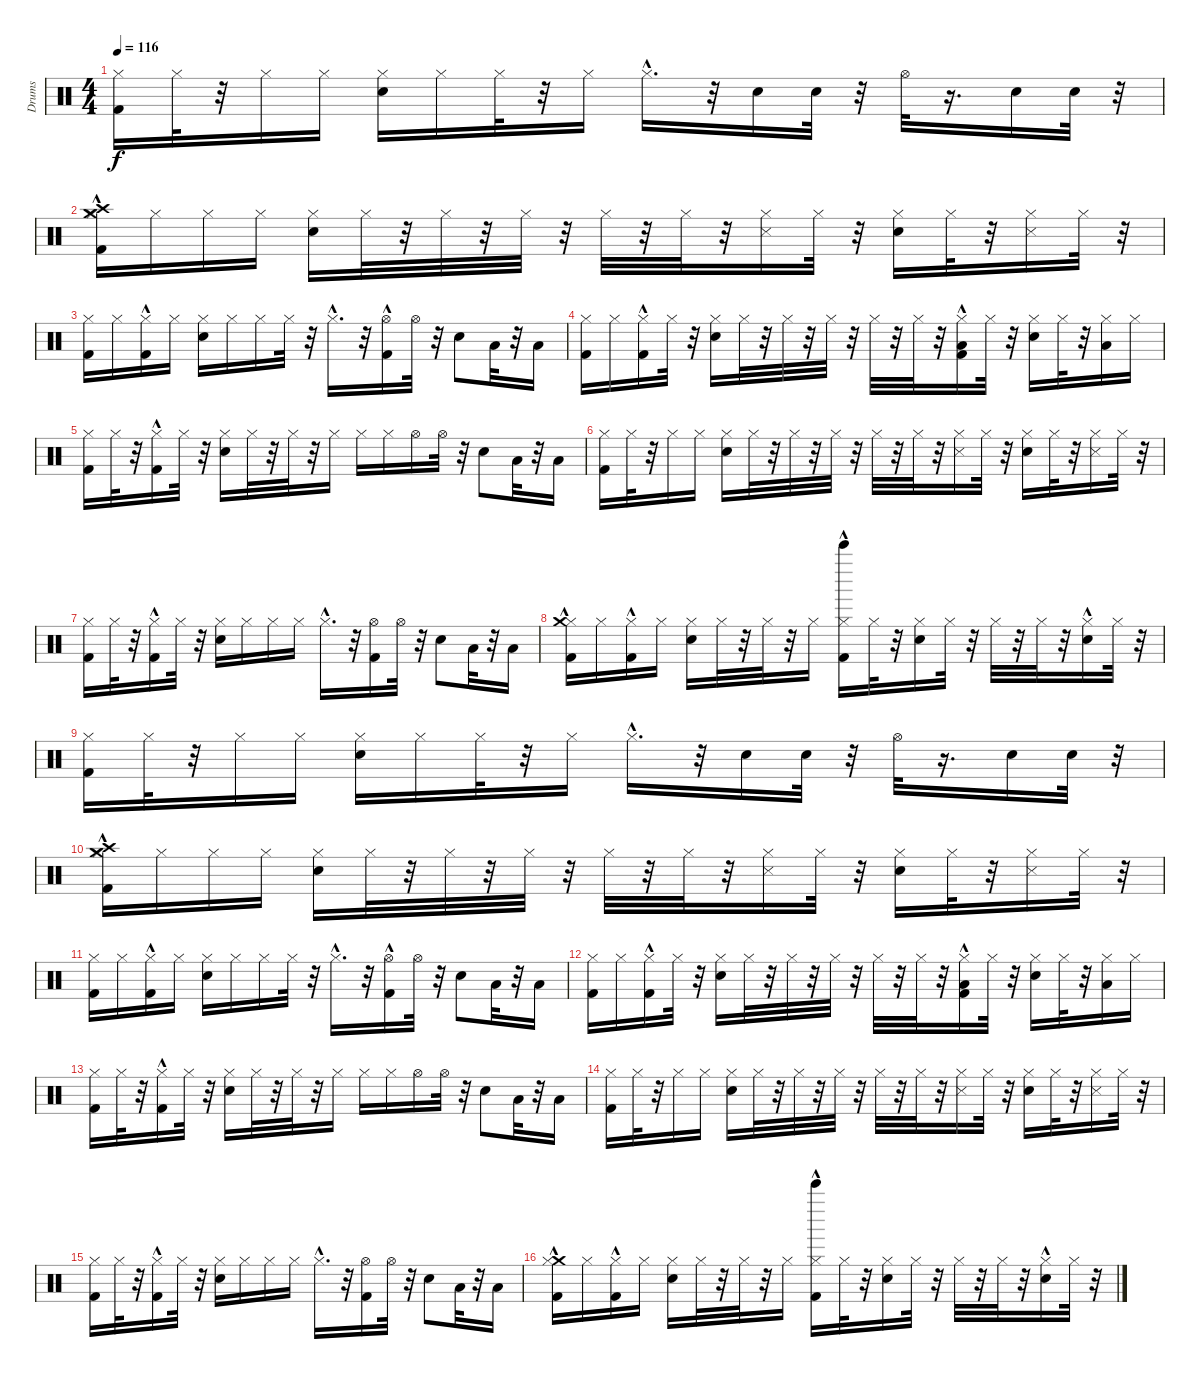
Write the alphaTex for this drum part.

\track ("Drums" "Drums") {instrument percussion}
\staff {score}
\articulation defaults
\ts (4 4)
\tempo 116
\clef neutral
\ks c
("Kick (hit) 2" "Hi-Hat (closed)").16{dy f} "Hi-Hat (closed)".32 r.32 "Hi-Hat (closed)".16 "Hi-Hat (closed)".16 ("Snare (hit) 2" "Hi-Hat (closed)").16 "Hi-Hat (closed)".16 "Hi-Hat (closed)".32 r.32 "Hi-Hat (closed)".16 "Hi-Hat (closed)"{hac}.16{d} r.32 "Snare (hit) 2".16 "Snare (hit) 2".32 r.32 "Hi-Hat (open)".32 r.16{d} "Snare (hit) 2".16 "Snare (hit) 2".32 r.32 |
("Crash high (hit)" "Hi-Hat (closed)" "Crash medium (hit)" "Kick (hit) 2"{hac}).16 "Hi-Hat (closed)".16 "Hi-Hat (closed)".16 "Hi-Hat (closed)".16 ("Hi-Hat (closed)" "Snare (hit) 2").16 "Hi-Hat (closed)".32 r.32 "Hi-Hat (closed)".32 r.32 "Hi-Hat (closed)".32 r.32 "Hi-Hat (closed)".32 r.32 "Hi-Hat (closed)".32 r.32 ("Hi-Hat (closed)" "Snare (side stick) 3").16 "Hi-Hat (closed)".32 r.32 ("Snare (hit) 2" "Hi-Hat (closed)").16 "Hi-Hat (closed)".32 r.32 ("Snare (side stick) 3" "Hi-Hat (closed)").16 "Hi-Hat (closed)".32 r.32 |
("Hi-Hat (closed)" "Kick (hit) 2").16 "Hi-Hat (closed)".16 ("Hi-Hat (closed)" "Kick (hit) 2"{hac}).16 "Hi-Hat (closed)".16 ("Hi-Hat (closed)" "Snare (hit) 2").16 "Hi-Hat (closed)".16 "Hi-Hat (closed)".16 "Hi-Hat (closed)".32 r.32 "Hi-Hat (closed)"{hac}.16{d} r.32 ("Kick (hit) 2"{hac} "Hi-Hat (open)").16 "Hi-Hat (open)".32 r.32 "Snare (hit) 2".8 "Low Tom (hit)".32 r.32 "Low Tom (hit)".16 |
("Hi-Hat (closed)" "Kick (hit) 2").16 "Hi-Hat (closed)".16 ("Hi-Hat (closed)" "Kick (hit) 2"{hac}).16 "Hi-Hat (closed)".32 r.32 ("Hi-Hat (closed)" "Snare (hit) 2").16 "Hi-Hat (closed)".32 r.32 "Hi-Hat (closed)".32 r.32 "Hi-Hat (closed)".32 r.32 "Hi-Hat (closed)".32 r.32 "Hi-Hat (closed)".32 r.32 ("Low Tom (hit)" "Hi-Hat (closed)" "Kick (hit) 2"{hac}).16 "Hi-Hat (closed)".32 r.32 ("Hi-Hat (closed)" "Snare (hit) 2").16 "Hi-Hat (closed)".32 r.32 ("Low Floor Tom (hit)" "Hi-Hat (closed)").16 "Hi-Hat (closed)".16 |
("Kick (hit) 2" "Hi-Hat (closed)").16 "Hi-Hat (closed)".32 r.32 ("Kick (hit) 2"{hac} "Hi-Hat (closed)").16 "Hi-Hat (closed)".32 r.32 ("Hi-Hat (closed)" "Snare (hit) 2").16 "Hi-Hat (closed)".32 r.32 "Hi-Hat (closed)".32 r.32 "Hi-Hat (closed)".16 "Hi-Hat (closed)".16 "Hi-Hat (closed)".16 "Hi-Hat (open)".16 "Hi-Hat (open)".32 r.32 "Snare (hit) 2".8 "Low Tom (hit)".32 r.32 "Low Tom (hit)".16 |
("Kick (hit) 2" "Hi-Hat (closed)").16 "Hi-Hat (closed)".32 r.32 "Hi-Hat (closed)".16 "Hi-Hat (closed)".16 ("Hi-Hat (closed)" "Snare (hit) 2").16 "Hi-Hat (closed)".32 r.32 "Hi-Hat (closed)".32 r.32 "Hi-Hat (closed)".32 r.32 "Hi-Hat (closed)".32 r.32 "Hi-Hat (closed)".32 r.32 ("Snare (side stick) 3" "Hi-Hat (closed)").16 "Hi-Hat (closed)".32 r.32 ("Snare (hit) 2" "Hi-Hat (closed)").16 "Hi-Hat (closed)".32 r.32 ("Snare (side stick) 3" "Hi-Hat (closed)").16 "Hi-Hat (closed)".32 r.32 |
("Kick (hit) 2" "Hi-Hat (closed)").16 "Hi-Hat (closed)".32 r.32 ("Kick (hit) 2"{hac} "Hi-Hat (closed)").16 "Hi-Hat (closed)".32 r.32 ("Hi-Hat (closed)" "Snare (hit) 2").16 "Hi-Hat (closed)".16 "Hi-Hat (closed)".16 "Hi-Hat (closed)".16 "Hi-Hat (closed)"{hac}.16{d} r.32 ("Hi-Hat (open)" "Kick (hit) 2").16 "Hi-Hat (open)".32 r.32 "Snare (hit) 2".8 "Low Tom (hit)".32 r.32 "Low Tom (hit)".16 |
("Hi-Hat (closed)" "Crash medium (hit)"{hac} "Kick (hit) 2").16 "Hi-Hat (closed)".16 ("Kick (hit) 2"{hac} "Hi-Hat (closed)").16 "Hi-Hat (closed)".16 ("Snare (hit) 2" "Hi-Hat (closed)").16 "Hi-Hat (closed)".32 r.32 "Hi-Hat (closed)".32 r.32 "Hi-Hat (closed)".16 ("Hi-Hat (closed)" "Kick (hit) 2"{hac} "Bell Tree (hit)").16 "Hi-Hat (closed)".32 r.32 ("Hi-Hat (closed)" "Snare (hit) 2").16 "Hi-Hat (closed)".32 r.32 "Hi-Hat (closed)".32 r.32 "Hi-Hat (closed)".32 r.32 ("Snare (hit) 2"{hac} "Hi-Hat (closed)").16 "Hi-Hat (closed)".32 r.32 |
("Hi-Hat (closed)" "Kick (hit) 2").16 "Hi-Hat (closed)".32 r.32 "Hi-Hat (closed)".16 "Hi-Hat (closed)".16 ("Snare (hit) 2" "Hi-Hat (closed)").16 "Hi-Hat (closed)".16 "Hi-Hat (closed)".32 r.32 "Hi-Hat (closed)".16 "Hi-Hat (closed)"{hac}.16{d} r.32 "Snare (hit) 2".16 "Snare (hit) 2".32 r.32 "Hi-Hat (open)".32 r.16{d} "Snare (hit) 2".16 "Snare (hit) 2".32 r.32 |
("Kick (hit) 2"{hac} "Crash medium (hit)" "Hi-Hat (closed)" "Crash high (hit)").16 "Hi-Hat (closed)".16 "Hi-Hat (closed)".16 "Hi-Hat (closed)".16 ("Snare (hit) 2" "Hi-Hat (closed)").16 "Hi-Hat (closed)".32 r.32 "Hi-Hat (closed)".32 r.32 "Hi-Hat (closed)".32 r.32 "Hi-Hat (closed)".32 r.32 "Hi-Hat (closed)".32 r.32 ("Hi-Hat (closed)" "Snare (side stick) 3").16 "Hi-Hat (closed)".32 r.32 ("Snare (hit) 2" "Hi-Hat (closed)").16 "Hi-Hat (closed)".32 r.32 ("Snare (side stick) 3" "Hi-Hat (closed)").16 "Hi-Hat (closed)".32 r.32 |
("Hi-Hat (closed)" "Kick (hit) 2").16 "Hi-Hat (closed)".16 ("Kick (hit) 2"{hac} "Hi-Hat (closed)").16 "Hi-Hat (closed)".16 ("Hi-Hat (closed)" "Snare (hit) 2").16 "Hi-Hat (closed)".16 "Hi-Hat (closed)".16 "Hi-Hat (closed)".32 r.32 "Hi-Hat (closed)"{hac}.16{d} r.32 ("Kick (hit) 2"{hac} "Hi-Hat (open)").16 "Hi-Hat (open)".32 r.32 "Snare (hit) 2".8 "Low Tom (hit)".32 r.32 "Low Tom (hit)".16 |
("Hi-Hat (closed)" "Kick (hit) 2").16 "Hi-Hat (closed)".16 ("Hi-Hat (closed)" "Kick (hit) 2"{hac}).16 "Hi-Hat (closed)".32 r.32 ("Snare (hit) 2" "Hi-Hat (closed)").16 "Hi-Hat (closed)".32 r.32 "Hi-Hat (closed)".32 r.32 "Hi-Hat (closed)".32 r.32 "Hi-Hat (closed)".32 r.32 "Hi-Hat (closed)".32 r.32 ("Kick (hit) 2"{hac} "Low Tom (hit)" "Hi-Hat (closed)").16 "Hi-Hat (closed)".32 r.32 ("Snare (hit) 2" "Hi-Hat (closed)").16 "Hi-Hat (closed)".32 r.32 ("Low Floor Tom (hit)" "Hi-Hat (closed)").16 "Hi-Hat (closed)".16 |
("Kick (hit) 2" "Hi-Hat (closed)").16 "Hi-Hat (closed)".32 r.32 ("Kick (hit) 2"{hac} "Hi-Hat (closed)").16 "Hi-Hat (closed)".32 r.32 ("Hi-Hat (closed)" "Snare (hit) 2").16 "Hi-Hat (closed)".32 r.32 "Hi-Hat (closed)".32 r.32 "Hi-Hat (closed)".16 "Hi-Hat (closed)".16 "Hi-Hat (closed)".16 "Hi-Hat (open)".16 "Hi-Hat (open)".32 r.32 "Snare (hit) 2".8 "Low Tom (hit)".32 r.32 "Low Tom (hit)".16 |
("Hi-Hat (closed)" "Kick (hit) 2").16 "Hi-Hat (closed)".32 r.32 "Hi-Hat (closed)".16 "Hi-Hat (closed)".16 ("Snare (hit) 2" "Hi-Hat (closed)").16 "Hi-Hat (closed)".32 r.32 "Hi-Hat (closed)".32 r.32 "Hi-Hat (closed)".32 r.32 "Hi-Hat (closed)".32 r.32 "Hi-Hat (closed)".32 r.32 ("Snare (side stick) 3" "Hi-Hat (closed)").16 "Hi-Hat (closed)".32 r.32 ("Hi-Hat (closed)" "Snare (hit) 2").16 "Hi-Hat (closed)".32 r.32 ("Snare (side stick) 3" "Hi-Hat (closed)").16 "Hi-Hat (closed)".32 r.32 |
("Kick (hit) 2" "Hi-Hat (closed)").16 "Hi-Hat (closed)".32 r.32 ("Hi-Hat (closed)" "Kick (hit) 2"{hac}).16 "Hi-Hat (closed)".32 r.32 ("Hi-Hat (closed)" "Snare (hit) 2").16 "Hi-Hat (closed)".16 "Hi-Hat (closed)".16 "Hi-Hat (closed)".16 "Hi-Hat (closed)"{hac}.16{d} r.32 ("Kick (hit) 2" "Hi-Hat (open)").16 "Hi-Hat (open)".32 r.32 "Snare (hit) 2".8 "Low Tom (hit)".32 r.32 "Low Tom (hit)".16 |
("Crash medium (hit)"{hac} "Hi-Hat (closed)" "Kick (hit) 2").16 "Hi-Hat (closed)".16 ("Kick (hit) 2"{hac} "Hi-Hat (closed)").16 "Hi-Hat (closed)".16 ("Snare (hit) 2" "Hi-Hat (closed)").16 "Hi-Hat (closed)".32 r.32 "Hi-Hat (closed)".32 r.32 "Hi-Hat (closed)".16 ("Hi-Hat (closed)" "Kick (hit) 2"{hac} "Bell Tree (hit)").16 "Hi-Hat (closed)".32 r.32 ("Hi-Hat (closed)" "Snare (hit) 2").16 "Hi-Hat (closed)".32 r.32 "Hi-Hat (closed)".32 r.32 "Hi-Hat (closed)".32 r.32 ("Snare (hit) 2"{hac} "Hi-Hat (closed)").16 "Hi-Hat (closed)".32 r.32
